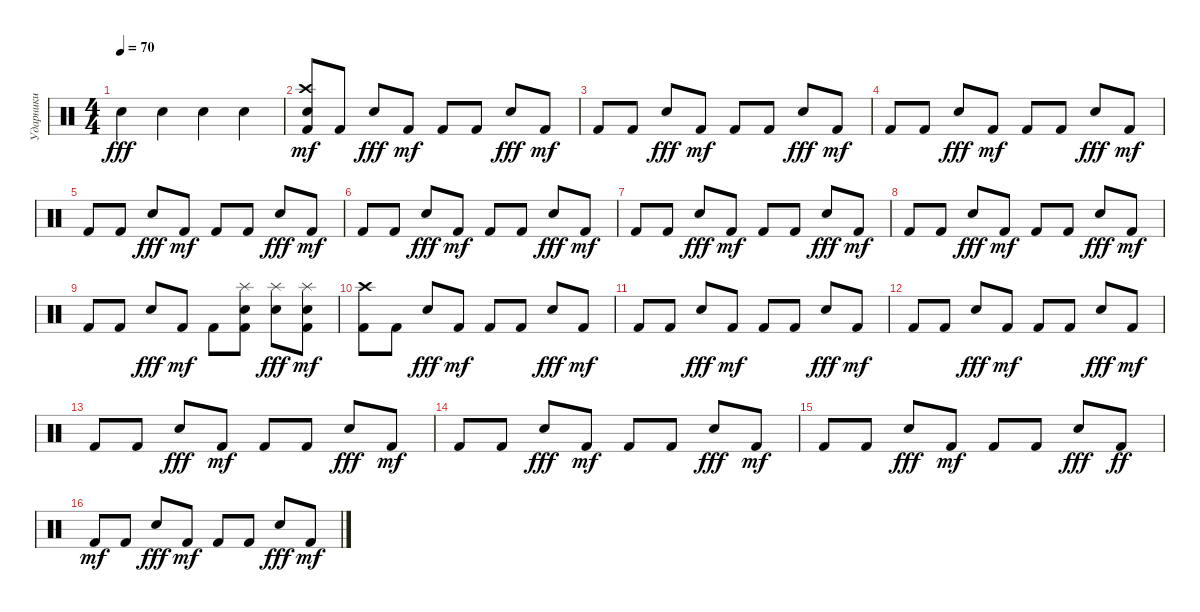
\track ("Ударники" "Ударники") {instrument percussion}
\staff {score}
\articulation defaults
\ts (4 4)
\tempo 70
\clef neutral
\ks c "Snare (hit) 2".4{dy fff} "Snare (hit) 2".4 "Snare (hit) 2".4 "Snare (hit) 2".4
|
("Crash high (hit)" "Snare (hit) 2" "Kick (hit) 2").8{dy mf} "Kick (hit) 2".8 "Snare (hit) 2".8{dy fff} "Kick (hit) 2".8{dy mf} "Kick (hit) 2".8 "Kick (hit) 2".8 "Snare (hit) 2".8{dy fff} "Kick (hit) 2".8{dy mf} |
"Kick (hit) 2".8 "Kick (hit) 2".8 "Snare (hit) 2".8{dy fff} "Kick (hit) 2".8{dy mf} "Kick (hit) 2".8 "Kick (hit) 2".8 "Snare (hit) 2".8{dy fff} "Kick (hit) 2".8{dy mf} |
"Kick (hit) 2".8 "Kick (hit) 2".8 "Snare (hit) 2".8{dy fff} "Kick (hit) 2".8{dy mf} "Kick (hit) 2".8 "Kick (hit) 2".8 "Snare (hit) 2".8{dy fff} "Kick (hit) 2".8{dy mf} |
"Kick (hit) 2".8 "Kick (hit) 2".8 "Snare (hit) 2".8{dy fff} "Kick (hit) 2".8{dy mf} "Kick (hit) 2".8 "Kick (hit) 2".8 "Snare (hit) 2".8{dy fff} "Kick (hit) 2".8{dy mf} |
"Kick (hit) 2".8 "Kick (hit) 2".8 "Snare (hit) 2".8{dy fff} "Kick (hit) 2".8{dy mf} "Kick (hit) 2".8 "Kick (hit) 2".8 "Snare (hit) 2".8{dy fff} "Kick (hit) 2".8{dy mf} |
"Kick (hit) 2".8 "Kick (hit) 2".8 "Snare (hit) 2".8{dy fff} "Kick (hit) 2".8{dy mf} "Kick (hit) 2".8 "Kick (hit) 2".8 "Snare (hit) 2".8{dy fff} "Kick (hit) 2".8{dy mf} |
"Kick (hit) 2".8 "Kick (hit) 2".8 "Snare (hit) 2".8{dy fff} "Kick (hit) 2".8{dy mf} "Kick (hit) 2".8 "Kick (hit) 2".8 "Snare (hit) 2".8{dy fff} "Kick (hit) 2".8{dy mf} |
"Kick (hit) 2".8 "Kick (hit) 2".8 "Snare (hit) 2".8{dy fff} "Kick (hit) 2".8{dy mf} "Kick (hit) 2".8 ("Snare (hit) 2" "Splash (hit)" "Kick (hit) 2").8 ("Snare (hit) 2" "Splash (hit)").8{dy fff} ("Snare (hit) 2" "Splash (hit)" "Kick (hit) 2").8{dy mf} |
("Crash high (hit)" "Kick (hit) 2").8 "Kick (hit) 2".8 "Snare (hit) 2".8{dy fff} "Kick (hit) 2".8{dy mf} "Kick (hit) 2".8 "Kick (hit) 2".8 "Snare (hit) 2".8{dy fff} "Kick (hit) 2".8{dy mf} |
"Kick (hit) 2".8 "Kick (hit) 2".8 "Snare (hit) 2".8{dy fff} "Kick (hit) 2".8{dy mf} "Kick (hit) 2".8 "Kick (hit) 2".8 "Snare (hit) 2".8{dy fff} "Kick (hit) 2".8{dy mf} |
"Kick (hit) 2".8 "Kick (hit) 2".8 "Snare (hit) 2".8{dy fff} "Kick (hit) 2".8{dy mf} "Kick (hit) 2".8 "Kick (hit) 2".8 "Snare (hit) 2".8{dy fff} "Kick (hit) 2".8{dy mf} |
"Kick (hit) 2".8 "Kick (hit) 2".8 "Snare (hit) 2".8{dy fff} "Kick (hit) 2".8{dy mf} "Kick (hit) 2".8 "Kick (hit) 2".8 "Snare (hit) 2".8{dy fff} "Kick (hit) 2".8{dy mf} |
"Kick (hit) 2".8 "Kick (hit) 2".8 "Snare (hit) 2".8{dy fff} "Kick (hit) 2".8{dy mf} "Kick (hit) 2".8 "Kick (hit) 2".8 "Snare (hit) 2".8{dy fff} "Kick (hit) 2".8{dy mf} |
"Kick (hit) 2".8 "Kick (hit) 2".8 "Snare (hit) 2".8{dy fff} "Kick (hit) 2".8{dy mf} "Kick (hit) 2".8 "Kick (hit) 2".8 "Snare (hit) 2".8{dy fff} "Kick (hit) 2".8{dy ff} |
"Kick (hit) 2".8{dy mf} "Kick (hit) 2".8 "Snare (hit) 2".8{dy fff} "Kick (hit) 2".8{dy mf} "Kick (hit) 2".8 "Kick (hit) 2".8 "Snare (hit) 2".8{dy fff} "Kick (hit) 2".8{dy mf}
